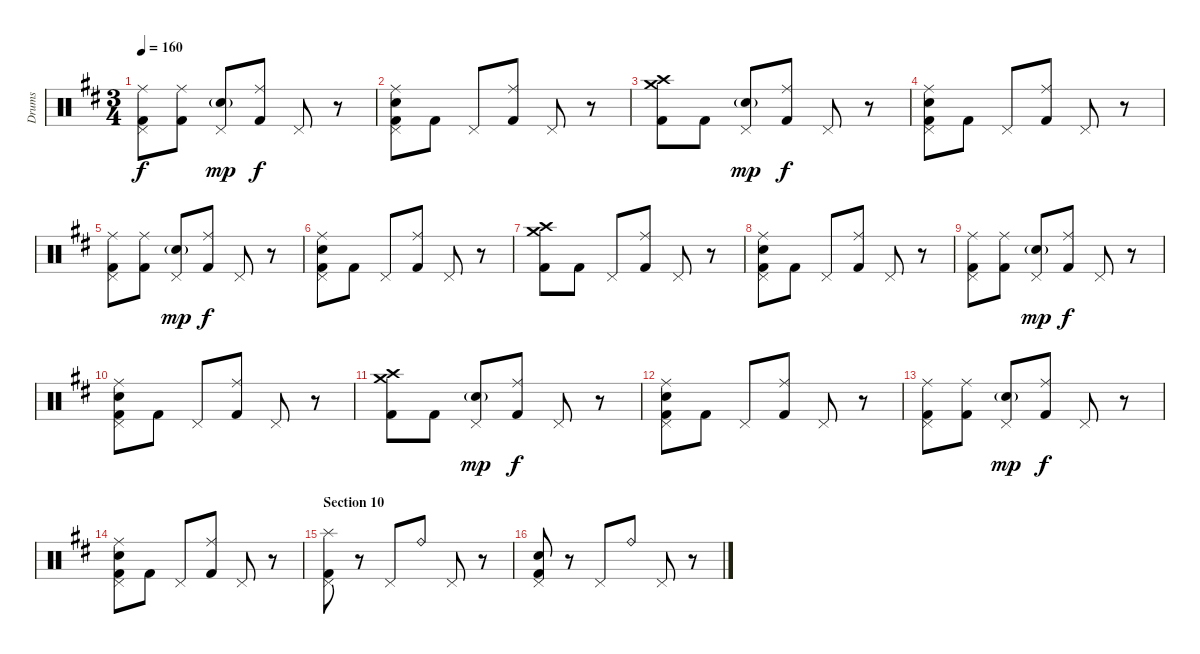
\track ("Drums" "Drums") {instrument percussion}
\staff {score}
\articulation defaults
\ts (3 4)
\tempo 160
\clef neutral
\ks bminor
("Ride (middle)" "Pedal Hi-Hat (hit)" "Kick (hit) 2").8{dy f} ("Ride (middle)" "Kick (hit) 2").8 ("Pedal Hi-Hat (hit)" "Snare (hit) 2"{g}).8{dy mp} ("Ride (middle)" "Kick (hit) 2").8{dy f} "Pedal Hi-Hat (hit)".8 r.8 |
("Ride (middle)" "Pedal Hi-Hat (hit)" "Snare (hit) 2" "Kick (hit) 2").8 "Kick (hit) 2".8 "Pedal Hi-Hat (hit)".8 ("Ride (middle)" "Kick (hit) 2").8 "Pedal Hi-Hat (hit)".8 r.8 |
("Crash high (hit)" "Crash medium (hit)" "Kick (hit) 2").8 "Kick (hit) 2".8 ("Pedal Hi-Hat (hit)" "Snare (hit) 2"{g}).8{dy mp} ("Ride (middle)" "Kick (hit) 2").8{dy f} "Pedal Hi-Hat (hit)".8 r.8 |
("Ride (middle)" "Pedal Hi-Hat (hit)" "Snare (hit) 2" "Kick (hit) 2").8 "Kick (hit) 2".8 "Pedal Hi-Hat (hit)".8 ("Ride (middle)" "Kick (hit) 2").8 "Pedal Hi-Hat (hit)".8 r.8 |
("Ride (middle)" "Pedal Hi-Hat (hit)" "Kick (hit) 2").8 ("Ride (middle)" "Kick (hit) 2").8 ("Pedal Hi-Hat (hit)" "Snare (hit) 2"{g}).8{dy mp} ("Ride (middle)" "Kick (hit) 2").8{dy f} "Pedal Hi-Hat (hit)".8 r.8 |
("Ride (middle)" "Pedal Hi-Hat (hit)" "Snare (hit) 2" "Kick (hit) 2").8 "Kick (hit) 2".8 "Pedal Hi-Hat (hit)".8 ("Ride (middle)" "Kick (hit) 2").8 "Pedal Hi-Hat (hit)".8 r.8 |
("Crash high (hit)" "Crash medium (hit)" "Kick (hit) 2").8 "Kick (hit) 2".8 "Pedal Hi-Hat (hit)".8 ("Ride (middle)" "Kick (hit) 2").8 "Pedal Hi-Hat (hit)".8 r.8 |
("Ride (middle)" "Pedal Hi-Hat (hit)" "Snare (hit) 2" "Kick (hit) 2").8 "Kick (hit) 2".8 "Pedal Hi-Hat (hit)".8 ("Ride (middle)" "Kick (hit) 2").8 "Pedal Hi-Hat (hit)".8 r.8 |
("Ride (middle)" "Pedal Hi-Hat (hit)" "Kick (hit) 2").8 ("Ride (middle)" "Kick (hit) 2").8 ("Pedal Hi-Hat (hit)" "Snare (hit) 2"{g}).8{dy mp} ("Ride (middle)" "Kick (hit) 2").8{dy f} "Pedal Hi-Hat (hit)".8 r.8 |
("Ride (middle)" "Pedal Hi-Hat (hit)" "Snare (hit) 2" "Kick (hit) 2").8 "Kick (hit) 2".8 "Pedal Hi-Hat (hit)".8 ("Ride (middle)" "Kick (hit) 2").8 "Pedal Hi-Hat (hit)".8 r.8 |
("Crash high (hit)" "Crash medium (hit)" "Kick (hit) 2").8 "Kick (hit) 2".8 ("Pedal Hi-Hat (hit)" "Snare (hit) 2"{g}).8{dy mp} ("Ride (middle)" "Kick (hit) 2").8{dy f} "Pedal Hi-Hat (hit)".8 r.8 |
("Ride (middle)" "Pedal Hi-Hat (hit)" "Snare (hit) 2" "Kick (hit) 2").8 "Kick (hit) 2".8 "Pedal Hi-Hat (hit)".8 ("Ride (middle)" "Kick (hit) 2").8 "Pedal Hi-Hat (hit)".8 r.8 |
("Ride (middle)" "Pedal Hi-Hat (hit)" "Kick (hit) 2").8 ("Ride (middle)" "Kick (hit) 2").8 ("Pedal Hi-Hat (hit)" "Snare (hit) 2"{g}).8{dy mp} ("Ride (middle)" "Kick (hit) 2").8{dy f} "Pedal Hi-Hat (hit)".8 r.8 |
("Ride (middle)" "Pedal Hi-Hat (hit)" "Snare (hit) 2" "Kick (hit) 2").8 "Kick (hit) 2".8 "Pedal Hi-Hat (hit)".8 ("Ride (middle)" "Kick (hit) 2").8 "Pedal Hi-Hat (hit)".8 r.8 |
\section ("" "Section 10")
("Splash (hit)" "Pedal Hi-Hat (hit)" "Kick (hit) 2").8 r.8 "Pedal Hi-Hat (hit)".8 "Ride (bell)".8 "Pedal Hi-Hat (hit)".8 r.8 |
("Pedal Hi-Hat (hit)" "Snare (hit) 2" "Kick (hit) 2").8 r.8 "Pedal Hi-Hat (hit)".8 "Ride (bell)".8 "Pedal Hi-Hat (hit)".8 r.8
